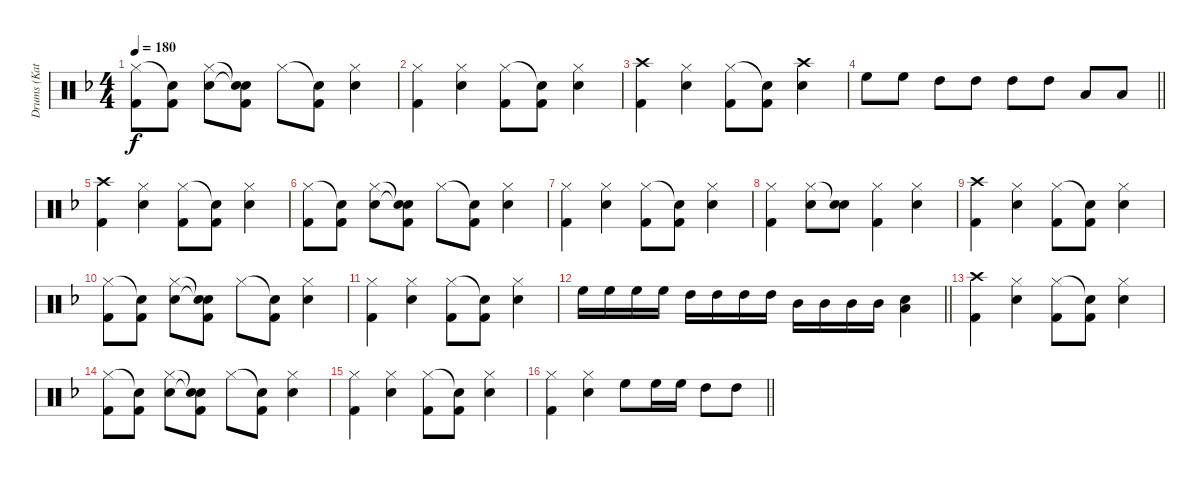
\track ("Drums (Katsuji)" "Drums (Kat") {instrument percussion}
\staff {score}
\articulation defaults
\ts (4 4)
\tempo 180
\clef neutral
\ks f
("Hi-Hat (closed)" "Kick (hit) 2").8{dy f} ("Snare (hit)"{t} "Kick (hit) 2").8 ("Hi-Hat (closed)" "Snare (hit) 2").8 ("Snare (hit)"{t} "Snare (hit)"{t} "Kick (hit) 2").8 "Hi-Hat (closed)".8 ("Snare (hit)"{t} "Kick (hit) 2").8 ("Hi-Hat (closed)" "Snare (hit) 2").4 |
("Hi-Hat (closed)" "Kick (hit) 2").4 ("Hi-Hat (closed)" "Snare (hit) 2").4 ("Hi-Hat (closed)" "Kick (hit) 2").8 ("Snare (hit)"{t} "Kick (hit) 2").8 ("Hi-Hat (closed)" "Snare (hit) 2").4 |
("Crash high (hit)" "Kick (hit) 2").4 ("Hi-Hat (closed)" "Snare (hit) 2").4 ("Hi-Hat (closed)" "Kick (hit) 2").8 ("Snare (hit)"{t} "Kick (hit) 2").8 ("Crash high (hit)" "Snare (hit) 2").4 |
\barLineRight lightlight "High Floor Tom (hit)".8 "High Floor Tom (hit)".8 "High Tom (hit)".8 "High Tom (hit)".8 "High Tom (hit)".8 "High Tom (hit)".8 "Low Tom (hit)".8 "Low Tom (hit)".8
|
("Crash high (hit)" "Kick (hit) 2").4 ("Hi-Hat (closed)" "Snare (hit) 2").4 ("Hi-Hat (closed)" "Kick (hit) 2").8 ("Snare (hit)"{t} "Kick (hit) 2").8 ("Hi-Hat (closed)" "Snare (hit) 2").4 |
("Hi-Hat (closed)" "Kick (hit) 2").8 ("Snare (hit)"{t} "Kick (hit) 2").8 ("Hi-Hat (closed)" "Snare (hit) 2").8 ("Snare (hit)"{t} "Snare (hit)"{t} "Kick (hit) 2").8 "Hi-Hat (closed)".8 ("Snare (hit)"{t} "Kick (hit) 2").8 ("Hi-Hat (closed)" "Snare (hit) 2").4 |
("Hi-Hat (closed)" "Kick (hit) 2").4 ("Hi-Hat (closed)" "Snare (hit) 2").4 ("Hi-Hat (closed)" "Kick (hit) 2").8 ("Snare (hit)"{t} "Kick (hit) 2").8 ("Hi-Hat (closed)" "Snare (hit) 2").4 |
("Hi-Hat (closed)" "Kick (hit) 2").4 ("Hi-Hat (closed)" "Snare (hit) 2").8 ("Snare (hit)"{t} "Snare (hit) 2").8 ("Hi-Hat (closed)" "Kick (hit) 2").4 ("Hi-Hat (closed)" "Snare (hit) 2").4 |
("Crash high (hit)" "Kick (hit) 2").4 ("Hi-Hat (closed)" "Snare (hit) 2").4 ("Hi-Hat (closed)" "Kick (hit) 2").8 ("Snare (hit)"{t} "Kick (hit) 2").8 ("Hi-Hat (closed)" "Snare (hit) 2").4 |
("Hi-Hat (closed)" "Kick (hit) 2").8 ("Snare (hit)"{t} "Kick (hit) 2").8 ("Hi-Hat (closed)" "Snare (hit) 2").8 ("Snare (hit)"{t} "Snare (hit)"{t} "Kick (hit) 2").8 "Hi-Hat (closed)".8 ("Snare (hit)"{t} "Kick (hit) 2").8 ("Hi-Hat (closed)" "Snare (hit) 2").4 |
("Hi-Hat (closed)" "Kick (hit) 2").4 ("Hi-Hat (closed)" "Snare (hit) 2").4 ("Hi-Hat (closed)" "Kick (hit) 2").8 ("Snare (hit)"{t} "Kick (hit) 2").8 ("Hi-Hat (closed)" "Snare (hit) 2").4 |
\barLineRight lightlight "High Floor Tom (hit)".16 "High Floor Tom (hit)".16 "High Floor Tom (hit)".16 "High Floor Tom (hit)".16 "High Tom (hit)".16 "High Tom (hit)".16 "High Tom (hit)".16 "High Tom (hit)".16 "Mid Tom (hit)".16 "Mid Tom (hit)".16 "Mid Tom (hit)".16 "Mid Tom (hit)".16
("Snare (hit) 2" "Low Tom (hit)").4 |
("Crash high (hit)" "Kick (hit) 2").4 ("Hi-Hat (closed)" "Snare (hit) 2").4 ("Hi-Hat (closed)" "Kick (hit) 2").8 ("Snare (hit)"{t} "Kick (hit) 2").8 ("Hi-Hat (closed)" "Snare (hit) 2").4 |
("Hi-Hat (closed)" "Kick (hit) 2").8 ("Snare (hit)"{t} "Kick (hit) 2").8 ("Hi-Hat (closed)" "Snare (hit) 2").8 ("Snare (hit)"{t} "Snare (hit)"{t} "Kick (hit) 2").8 "Hi-Hat (closed)".8 ("Snare (hit)"{t} "Kick (hit) 2").8 ("Hi-Hat (closed)" "Snare (hit) 2").4 |
("Hi-Hat (closed)" "Kick (hit) 2").4 ("Hi-Hat (closed)" "Snare (hit) 2").4 ("Hi-Hat (closed)" "Kick (hit) 2").8 ("Snare (hit)"{t} "Kick (hit) 2").8 ("Hi-Hat (closed)" "Snare (hit) 2").4 |
\barLineRight lightlight
("Hi-Hat (closed)" "Kick (hit) 2").4 ("Hi-Hat (closed)" "Snare (hit) 2").4 "High Floor Tom (hit)".8 "High Floor Tom (hit)".16 "High Floor Tom (hit)".16 "High Tom (hit)".8 "High Tom (hit)".8
